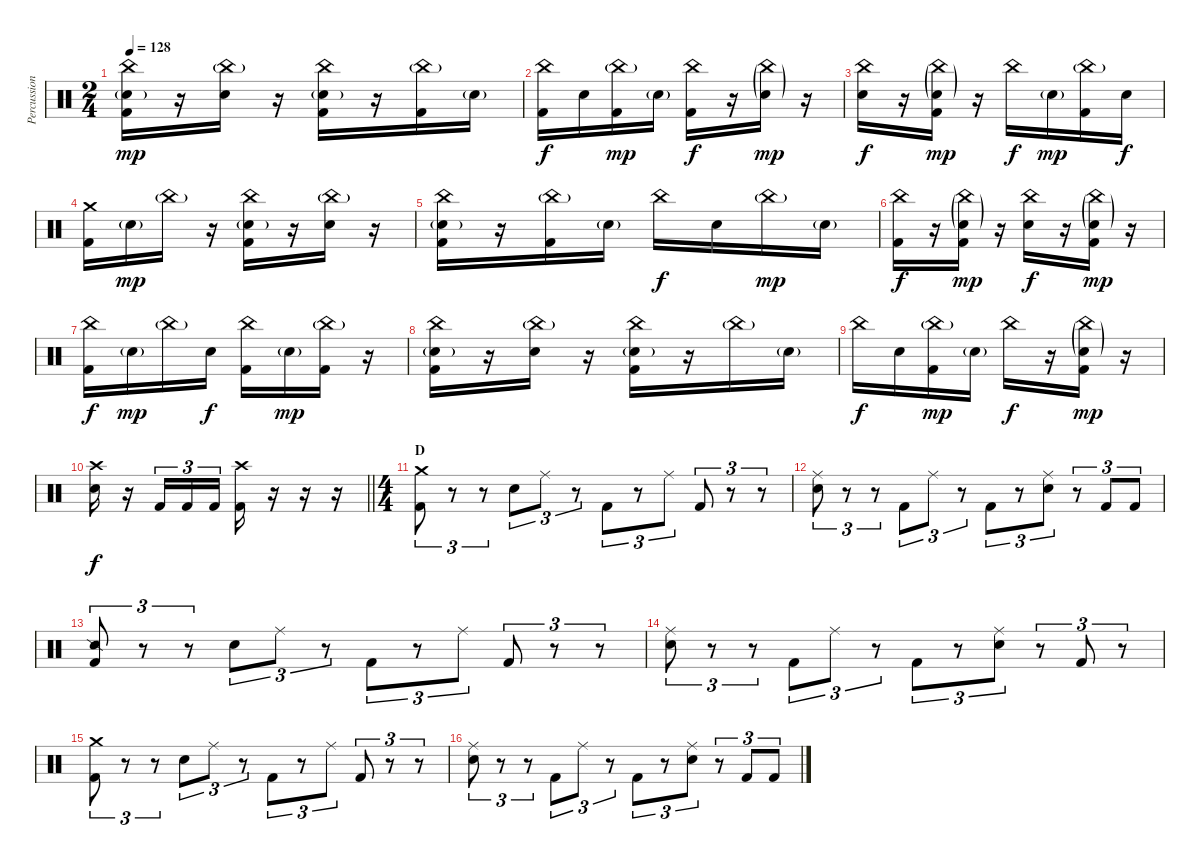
\track ("Percussion" "Percussion") {instrument percussion}
\staff {score}
\articulation defaults
\ts (2 4)
\tempo 128
\clef neutral
\ks c
("China (hit)" "Snare (hit) 2"{g} "Kick (hit) 2").16{dy mp} r.16 ("China (hit)"{g} "Snare (hit) 2").16 r.16 ("China (hit)" "Snare (hit) 2"{g} "Kick (hit) 2").16 r.16 ("China (hit)"{g} "Kick (hit) 2").16 "Snare (hit) 2"{g}.16 |
("China (hit)" "Kick (hit) 2").16{dy f} "Snare (hit) 2".16 ("China (hit)"{g} "Kick (hit) 2").16{dy mp} "Snare (hit) 2"{g}.16 ("China (hit)" "Kick (hit) 2").16{dy f} r.16 ("China (hit)"{g} "Snare (hit) 2"{g}).16{dy mp} r.16 |
("China (hit)" "Snare (hit) 2").16{dy f} r.16 ("China (hit)"{g} "Snare (hit) 2"{g} "Kick (hit) 2").16{dy mp} r.16 "China (hit)".16{dy f} "Snare (hit) 2"{g}.16{dy mp} ("China (hit)"{g} "Kick (hit) 2").16 "Snare (hit) 2".16{dy f} |
("Crash medium (hit)" "Kick (hit) 2").16 "Snare (hit) 2"{g}.16{dy mp} "China (hit)"{g}.16 r.16 ("China (hit)" "Snare (hit) 2"{g} "Kick (hit) 2").16 r.16 ("China (hit)"{g} "Snare (hit) 2").16 r.16 |
("China (hit)" "Snare (hit) 2"{g} "Kick (hit) 2").16 r.16 ("China (hit)"{g} "Kick (hit) 2").16 "Snare (hit) 2"{g}.16 "China (hit)".16{dy f} "Snare (hit) 2".16 "China (hit)"{g}.16{dy mp} "Snare (hit) 2"{g}.16 |
("China (hit)" "Kick (hit) 2").16{dy f} r.16 ("China (hit)"{g} "Snare (hit) 2"{g} "Kick (hit) 2").16{dy mp} r.16 ("China (hit)" "Snare (hit) 2").16{dy f} r.16 ("China (hit)"{g} "Snare (hit) 2"{g} "Kick (hit) 2").16{dy mp} r.16 |
("China (hit)" "Kick (hit) 2").16{dy f} "Snare (hit) 2"{g}.16{dy mp} "China (hit)"{g}.16 "Snare (hit) 2".16{dy f} ("China (hit)" "Kick (hit) 2").16 "Snare (hit) 2"{g}.16{dy mp} ("China (hit)"{g} "Kick (hit) 2").16 r.16 |
("China (hit)" "Snare (hit) 2"{g} "Kick (hit) 2").16 r.16 ("China (hit)"{g} "Snare (hit) 2").16 r.16 ("China (hit)" "Snare (hit) 2"{g} "Kick (hit) 2").16 r.16 "China (hit)"{g}.16 "Snare (hit) 2"{g}.16 |
"China (hit)".16{dy f} "Snare (hit) 2".16 ("China (hit)"{g} "Kick (hit) 2").16{dy mp} "Snare (hit) 2"{g}.16 "China (hit)".16{dy f} r.16 ("China (hit)"{g} "Snare (hit) 2"{g} "Kick (hit) 2").16{dy mp} r.16 |
\barLineRight lightlight
("Crash high (hit)" "Snare (hit) 2").16{dy f} r.16 "Kick (hit) 2".16{tu (3 2)} "Kick (hit) 2".16{tu (3 2)} "Kick (hit) 2".16{tu (3 2)} ("Crash high (hit)" "Kick (hit) 2").16 r.16 r.16 r.16 |
\ts (4 4)
\section ("" "D")
("Crash medium (hit)" "Kick (hit) 2").8{tu (3 2)} r.8{tu (3 2)} r.8{tu (3 2)} "Snare (hit) 2".8{tu (3 2)} "Ride (middle)".8{tu (3 2)} r.8{tu (3 2)} "Kick (hit) 2".8{tu (3 2)} r.8{tu (3 2)} "Ride (middle)".8{tu (3 2)} "Kick (hit) 2".8{tu (3 2)} r.8{tu (3 2)} r.8{tu (3 2)} |
("Ride (middle)" "Snare (hit) 2").8{tu (3 2)} r.8{tu (3 2)} r.8{tu (3 2)} "Kick (hit) 2".8{tu (3 2)} "Ride (middle)".8{tu (3 2)} r.8{tu (3 2)} "Kick (hit) 2".8{tu (3 2)} r.8{tu (3 2)} ("Ride (middle)" "Snare (hit) 2").8{tu (3 2)} r.8{tu (3 2)} "Kick (hit) 2".8{tu (3 2)} "Kick (hit) 2".8{tu (3 2)} |
("Snare (side stick) 2" "Kick (hit) 2").8{tu (3 2)} r.8{tu (3 2)} r.8{tu (3 2)} "Snare (hit) 2".8{tu (3 2)} "Ride (middle)".8{tu (3 2)} r.8{tu (3 2)} "Kick (hit) 2".8{tu (3 2)} r.8{tu (3 2)} "Ride (middle)".8{tu (3 2)} "Kick (hit) 2".8{tu (3 2)} r.8{tu (3 2)} r.8{tu (3 2)} |
("Ride (middle)" "Snare (hit) 2").8{tu (3 2)} r.8{tu (3 2)} r.8{tu (3 2)} "Kick (hit) 2".8{tu (3 2)} "Ride (middle)".8{tu (3 2)} r.8{tu (3 2)} "Kick (hit) 2".8{tu (3 2)} r.8{tu (3 2)} ("Ride (middle)" "Snare (hit) 2").8{tu (3 2)} r.8{tu (3 2)} "Kick (hit) 2".8{tu (3 2)} r.8{tu (3 2)} |
("Crash medium (hit)" "Kick (hit) 2").8{tu (3 2)} r.8{tu (3 2)} r.8{tu (3 2)} "Snare (hit) 2".8{tu (3 2)} "Ride (middle)".8{tu (3 2)} r.8{tu (3 2)} "Kick (hit) 2".8{tu (3 2)} r.8{tu (3 2)} "Ride (middle)".8{tu (3 2)} "Kick (hit) 2".8{tu (3 2)} r.8{tu (3 2)} r.8{tu (3 2)} |
("Ride (middle)" "Snare (hit) 2").8{tu (3 2)} r.8{tu (3 2)} r.8{tu (3 2)} "Kick (hit) 2".8{tu (3 2)} "Ride (middle)".8{tu (3 2)} r.8{tu (3 2)} "Kick (hit) 2".8{tu (3 2)} r.8{tu (3 2)} ("Ride (middle)" "Snare (hit) 2").8{tu (3 2)} r.8{tu (3 2)} "Kick (hit) 2".8{tu (3 2)} "Kick (hit) 2".8{tu (3 2)}
